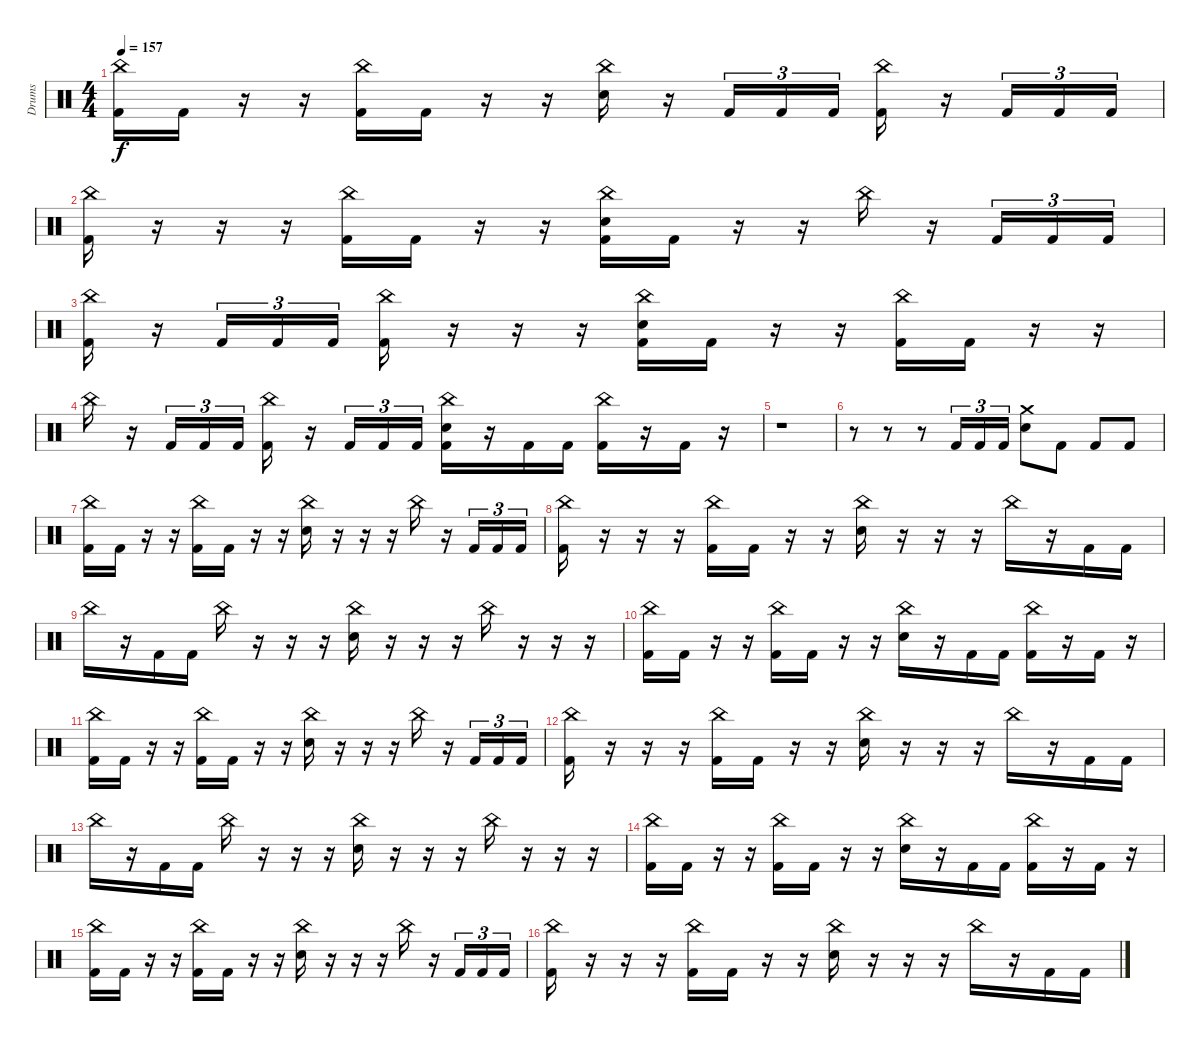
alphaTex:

\track ("Drums" "Drums") {instrument percussion}
\staff {score}
\articulation defaults
\ts (4 4)
\tempo 157
\clef neutral
\ks c
("China (hit)" "Kick (hit) 2").16{dy f} "Kick (hit) 2".16 r.16 r.16 ("China (hit)" "Kick (hit) 2").16 "Kick (hit) 2".16 r.16 r.16 ("China (hit)" "Electric Snare (hit)").16 r.16 "Kick (hit) 2".16{tu (3 2)} "Kick (hit) 2".16{tu (3 2)} "Kick (hit) 2".16{tu (3 2)} ("China (hit)" "Kick (hit) 2").16 r.16 "Kick (hit) 2".16{tu (3 2)} "Kick (hit) 2".16{tu (3 2)} "Kick (hit) 2".16{tu (3 2)} |
("China (hit)" "Kick (hit) 2").16 r.16 r.16 r.16 ("China (hit)" "Kick (hit) 2").16 "Kick (hit) 2".16 r.16 r.16 ("China (hit)" "Electric Snare (hit)" "Kick (hit) 2").16 "Kick (hit) 2".16 r.16 r.16 "China (hit)".16 r.16 "Kick (hit) 2".16{tu (3 2)} "Kick (hit) 2".16{tu (3 2)} "Kick (hit) 2".16{tu (3 2)} |
("China (hit)" "Kick (hit) 2").16 r.16 "Kick (hit) 2".16{tu (3 2)} "Kick (hit) 2".16{tu (3 2)} "Kick (hit) 2".16{tu (3 2)} ("China (hit)" "Kick (hit) 2").16 r.16 r.16 r.16 ("China (hit)" "Electric Snare (hit)" "Kick (hit) 2").16 "Kick (hit) 2".16 r.16 r.16 ("China (hit)" "Kick (hit) 2").16 "Kick (hit) 2".16 r.16 r.16 |
"China (hit)".16 r.16 "Kick (hit) 2".16{tu (3 2)} "Kick (hit) 2".16{tu (3 2)} "Kick (hit) 2".16{tu (3 2)} ("China (hit)" "Kick (hit) 2").16 r.16 "Kick (hit) 2".16{tu (3 2)} "Kick (hit) 2".16{tu (3 2)} "Kick (hit) 2".16{tu (3 2)} ("China (hit)" "Electric Snare (hit)" "Kick (hit) 2").16 r.16 "Kick (hit) 2".16 "Kick (hit) 2".16 ("China (hit)" "Kick (hit) 2").16 r.16 "Kick (hit) 2".16 r.16 |
r.1 |
r.8 r.8 r.8 "Kick (hit) 2".16{tu (3 2)} "Kick (hit) 2".16{tu (3 2)} "Kick (hit) 2".16{tu (3 2)} ("Crash medium (hit)" "Electric Snare (hit)").8 "Kick (hit) 2".8 "Kick (hit) 2".8 "Kick (hit) 2".8 |
("China (hit)" "Kick (hit) 2").16 "Kick (hit) 2".16 r.16 r.16 ("China (hit)" "Kick (hit) 2").16 "Kick (hit) 2".16 r.16 r.16 ("China (hit)" "Electric Snare (hit)").16 r.16 r.16 r.16 "China (hit)".16 r.16 "Kick (hit) 2".16{tu (3 2)} "Kick (hit) 2".16{tu (3 2)} "Kick (hit) 2".16{tu (3 2)} |
("China (hit)" "Kick (hit) 2").16 r.16 r.16 r.16 ("China (hit)" "Kick (hit) 2").16 "Kick (hit) 2".16 r.16 r.16 ("China (hit)" "Electric Snare (hit)").16 r.16 r.16 r.16 "China (hit)".16 r.16 "Kick (hit) 2".16 "Kick (hit) 2".16 |
"China (hit)".16 r.16 "Kick (hit) 2".16 "Kick (hit) 2".16 "China (hit)".16 r.16 r.16 r.16 ("China (hit)" "Electric Snare (hit)").16 r.16 r.16 r.16 "China (hit)".16 r.16 r.16 r.16 |
("China (hit)" "Kick (hit) 2").16 "Kick (hit) 2".16 r.16 r.16 ("China (hit)" "Kick (hit) 2").16 "Kick (hit) 2".16 r.16 r.16 ("China (hit)" "Electric Snare (hit)").16 r.16 "Kick (hit) 2".16 "Kick (hit) 2".16 ("China (hit)" "Kick (hit) 2").16 r.16 "Kick (hit) 2".16 r.16 |
("China (hit)" "Kick (hit) 2").16 "Kick (hit) 2".16 r.16 r.16 ("China (hit)" "Kick (hit) 2").16 "Kick (hit) 2".16 r.16 r.16 ("China (hit)" "Electric Snare (hit)").16 r.16 r.16 r.16 "China (hit)".16 r.16 "Kick (hit) 2".16{tu (3 2)} "Kick (hit) 2".16{tu (3 2)} "Kick (hit) 2".16{tu (3 2)} |
("China (hit)" "Kick (hit) 2").16 r.16 r.16 r.16 ("China (hit)" "Kick (hit) 2").16 "Kick (hit) 2".16 r.16 r.16 ("China (hit)" "Electric Snare (hit)").16 r.16 r.16 r.16 "China (hit)".16 r.16 "Kick (hit) 2".16 "Kick (hit) 2".16 |
"China (hit)".16 r.16 "Kick (hit) 2".16 "Kick (hit) 2".16 "China (hit)".16 r.16 r.16 r.16 ("China (hit)" "Electric Snare (hit)").16 r.16 r.16 r.16 "China (hit)".16 r.16 r.16 r.16 |
("China (hit)" "Kick (hit) 2").16 "Kick (hit) 2".16 r.16 r.16 ("China (hit)" "Kick (hit) 2").16 "Kick (hit) 2".16 r.16 r.16 ("China (hit)" "Electric Snare (hit)").16 r.16 "Kick (hit) 2".16 "Kick (hit) 2".16 ("China (hit)" "Kick (hit) 2").16 r.16 "Kick (hit) 2".16 r.16 |
("China (hit)" "Kick (hit) 2").16 "Kick (hit) 2".16 r.16 r.16 ("China (hit)" "Kick (hit) 2").16 "Kick (hit) 2".16 r.16 r.16 ("China (hit)" "Electric Snare (hit)").16 r.16 r.16 r.16 "China (hit)".16 r.16 "Kick (hit) 2".16{tu (3 2)} "Kick (hit) 2".16{tu (3 2)} "Kick (hit) 2".16{tu (3 2)} |
("China (hit)" "Kick (hit) 2").16 r.16 r.16 r.16 ("China (hit)" "Kick (hit) 2").16 "Kick (hit) 2".16 r.16 r.16 ("China (hit)" "Electric Snare (hit)").16 r.16 r.16 r.16 "China (hit)".16 r.16 "Kick (hit) 2".16 "Kick (hit) 2".16
